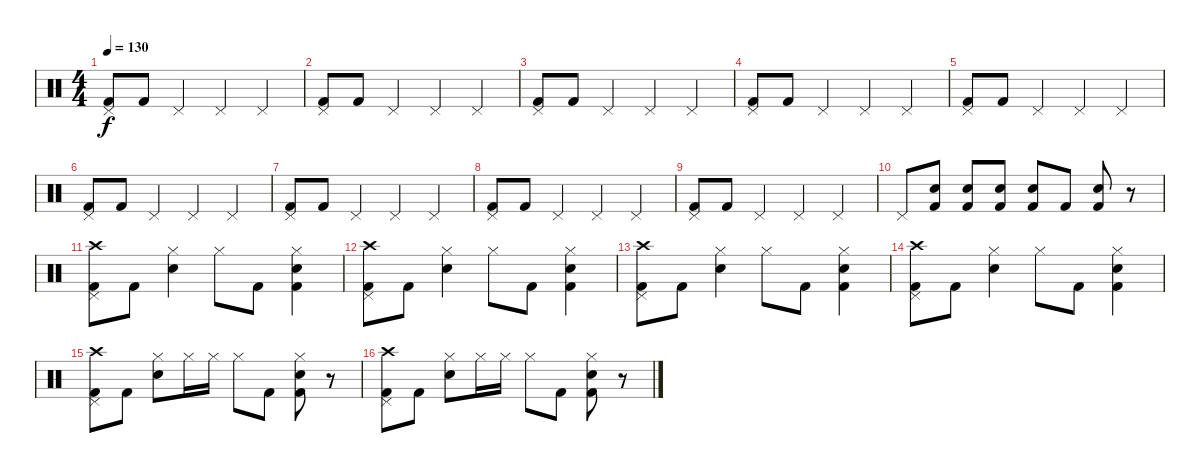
\track "" {instrument percussion}
\staff {score}
\articulation defaults
\ts (4 4)
\tempo 130
\clef neutral
\ks c
("Pedal Hi-Hat (hit)" "Kick (hit) 2").8{dy f} "Kick (hit) 2".8 "Pedal Hi-Hat (hit)".4 "Pedal Hi-Hat (hit)".4 "Pedal Hi-Hat (hit)".4 |
("Pedal Hi-Hat (hit)" "Kick (hit) 2").8 "Kick (hit) 2".8 "Pedal Hi-Hat (hit)".4 "Pedal Hi-Hat (hit)".4 "Pedal Hi-Hat (hit)".4 |
("Pedal Hi-Hat (hit)" "Kick (hit) 2").8 "Kick (hit) 2".8 "Pedal Hi-Hat (hit)".4 "Pedal Hi-Hat (hit)".4 "Pedal Hi-Hat (hit)".4 |
("Pedal Hi-Hat (hit)" "Kick (hit) 2").8 "Kick (hit) 2".8 "Pedal Hi-Hat (hit)".4 "Pedal Hi-Hat (hit)".4 "Pedal Hi-Hat (hit)".4 |
("Pedal Hi-Hat (hit)" "Kick (hit) 2").8 "Kick (hit) 2".8 "Pedal Hi-Hat (hit)".4 "Pedal Hi-Hat (hit)".4 "Pedal Hi-Hat (hit)".4 |
("Pedal Hi-Hat (hit)" "Kick (hit) 2").8 "Kick (hit) 2".8 "Pedal Hi-Hat (hit)".4 "Pedal Hi-Hat (hit)".4 "Pedal Hi-Hat (hit)".4 |
("Pedal Hi-Hat (hit)" "Kick (hit) 2").8 "Kick (hit) 2".8 "Pedal Hi-Hat (hit)".4 "Pedal Hi-Hat (hit)".4 "Pedal Hi-Hat (hit)".4 |
("Pedal Hi-Hat (hit)" "Kick (hit) 2").8 "Kick (hit) 2".8 "Pedal Hi-Hat (hit)".4 "Pedal Hi-Hat (hit)".4 "Pedal Hi-Hat (hit)".4 |
("Pedal Hi-Hat (hit)" "Kick (hit) 2").8 "Kick (hit) 2".8 "Pedal Hi-Hat (hit)".4 "Pedal Hi-Hat (hit)".4 "Pedal Hi-Hat (hit)".4 |
"Pedal Hi-Hat (hit)".8 ("Kick (hit) 2" "Electric Snare (hit)").8 ("Kick (hit) 2" "Electric Snare (hit)").8 ("Kick (hit) 2" "Electric Snare (hit)").8 ("Kick (hit) 2" "Electric Snare (hit)").8 "Kick (hit) 2".8 ("Electric Snare (hit)" "Kick (hit) 2").8 r.8 |
("Crash high (hit)" "Pedal Hi-Hat (hit)" "Kick (hit) 2").8 "Kick (hit) 2".8 ("Hi-Hat (closed)" "Electric Snare (hit)").4 "Hi-Hat (closed)".8 "Kick (hit) 2".8 ("Hi-Hat (closed)" "Kick (hit) 2" "Electric Snare (hit)").4 |
("Crash high (hit)" "Pedal Hi-Hat (hit)" "Kick (hit) 2").8 "Kick (hit) 2".8 ("Hi-Hat (closed)" "Electric Snare (hit)").4 "Hi-Hat (closed)".8 "Kick (hit) 2".8 ("Hi-Hat (closed)" "Kick (hit) 2" "Electric Snare (hit)").4 |
("Crash high (hit)" "Pedal Hi-Hat (hit)" "Kick (hit) 2").8 "Kick (hit) 2".8 ("Hi-Hat (closed)" "Electric Snare (hit)").4 "Hi-Hat (closed)".8 "Kick (hit) 2".8 ("Hi-Hat (closed)" "Kick (hit) 2" "Electric Snare (hit)").4 |
("Crash high (hit)" "Pedal Hi-Hat (hit)" "Kick (hit) 2").8 "Kick (hit) 2".8 ("Hi-Hat (closed)" "Electric Snare (hit)").4 "Hi-Hat (closed)".8 "Kick (hit) 2".8 ("Hi-Hat (closed)" "Kick (hit) 2" "Electric Snare (hit)").4 |
("Crash high (hit)" "Pedal Hi-Hat (hit)" "Kick (hit) 2").8 "Kick (hit) 2".8 ("Hi-Hat (closed)" "Electric Snare (hit)").8 "Hi-Hat (closed)".16 "Hi-Hat (closed)".16 "Hi-Hat (closed)".8 "Kick (hit) 2".8 ("Hi-Hat (closed)" "Electric Snare (hit)" "Kick (hit) 2").8 r.8 |
("Crash high (hit)" "Pedal Hi-Hat (hit)" "Kick (hit) 2").8 "Kick (hit) 2".8 ("Hi-Hat (closed)" "Electric Snare (hit)").8 "Hi-Hat (closed)".16 "Hi-Hat (closed)".16 "Hi-Hat (closed)".8 "Kick (hit) 2".8 ("Hi-Hat (closed)" "Electric Snare (hit)" "Kick (hit) 2").8 r.8
